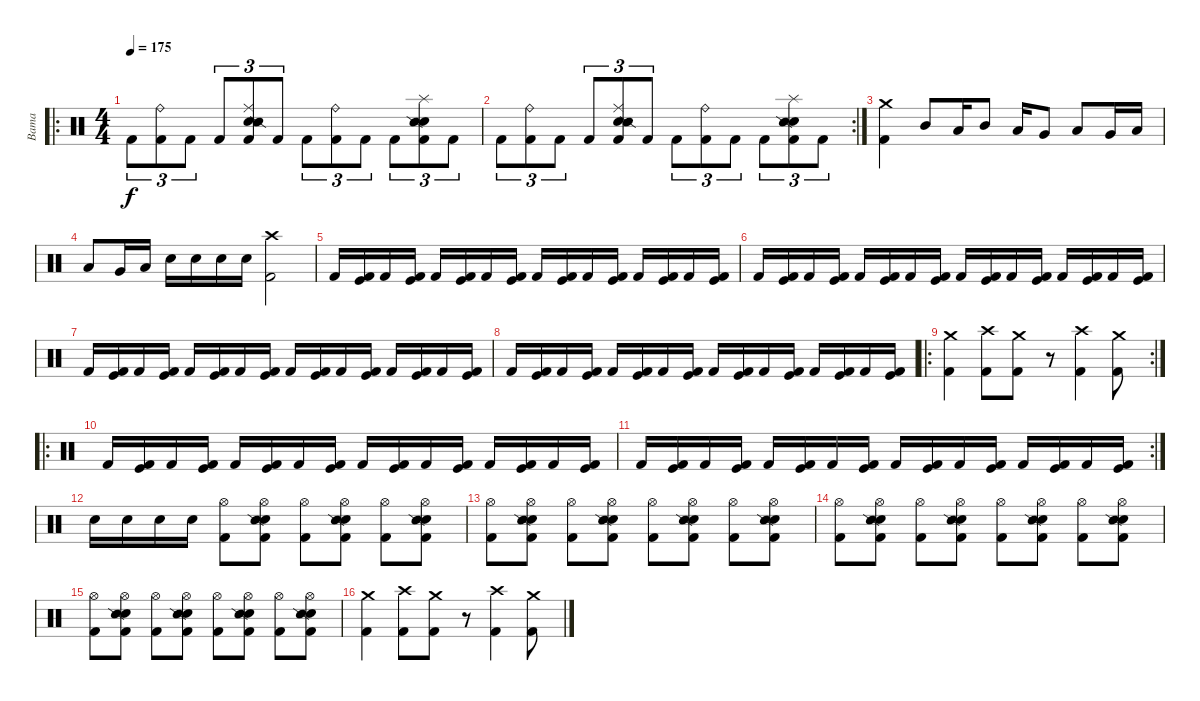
\track ("Bama" "Bama") {instrument percussion}
\staff {score}
\articulation defaults
\ro
\ts (4 4)
\tempo 175
\clef neutral
\ks c "Kick (hit) 2".8{tu (3 2) dy f}
("Ride (bell)" "Kick (hit) 2").8{tu (3 2)} "Kick (hit) 2".8{tu (3 2)} "Kick (hit) 2".8{tu (3 2)} ("Ride (middle)" "Electric Snare (hit)" "Snare (side stick) 2" "Kick (hit) 2").8{tu (3 2)} "Kick (hit) 2".8{tu (3 2)} "Kick (hit) 2".8{tu (3 2)} ("Ride (bell)" "Kick (hit) 2").8{tu (3 2)} "Kick (hit) 2".8{tu (3 2)} "Kick (hit) 2".8{tu (3 2)} ("Splash (hit)" "Electric Snare (hit)" "Snare (side stick) 2" "Kick (hit) 2").8{tu (3 2)} "Kick (hit) 2".8{tu (3 2)} |
\rc 2 "Kick (hit) 2".8{tu (3 2)}
("Ride (bell)" "Kick (hit) 2").8{tu (3 2)} "Kick (hit) 2".8{tu (3 2)} "Kick (hit) 2".8{tu (3 2)} ("Ride (middle)" "Electric Snare (hit)" "Snare (side stick) 2" "Kick (hit) 2").8{tu (3 2)} "Kick (hit) 2".8{tu (3 2)} "Kick (hit) 2".8{tu (3 2)} ("Ride (bell)" "Kick (hit) 2").8{tu (3 2)} "Kick (hit) 2".8{tu (3 2)} "Kick (hit) 2".8{tu (3 2)} ("Splash (hit)" "Electric Snare (hit)" "Snare (side stick) 2" "Kick (hit) 2").8{tu (3 2)} "Kick (hit) 2".8{tu (3 2)} |
("Crash medium (hit)" "Kick (hit) 2").4 "Mid Tom (hit)".8 "Low Tom (hit)".16 "Mid Tom (hit)".8 "Low Tom (hit)".16 "Very Low Tom (hit)".8 "Low Tom (hit)".8 "Very Low Tom (hit)".16 "Low Floor Tom (hit)".16 |
"Low Tom (hit)".8 "Very Low Tom (hit)".16 "Low Floor Tom (hit)".16 "Electric Snare (hit)".16 "Electric Snare (hit)".16 "Electric Snare (hit)".16 "Electric Snare (hit)".16 ("Crash high (hit)" "Kick (hit) 2").2 |
"Kick (hit) 2".16 ("Kick (hit)" "Kick (hit) 2").16 "Kick (hit) 2".16 ("Kick (hit)" "Kick (hit) 2").16 "Kick (hit) 2".16 ("Kick (hit)" "Kick (hit) 2").16 "Kick (hit) 2".16 ("Kick (hit)" "Kick (hit) 2").16 "Kick (hit) 2".16 ("Kick (hit)" "Kick (hit) 2").16 "Kick (hit) 2".16 ("Kick (hit)" "Kick (hit) 2").16 "Kick (hit) 2".16 ("Kick (hit)" "Kick (hit) 2").16 "Kick (hit) 2".16 ("Kick (hit)" "Kick (hit) 2").16 |
"Kick (hit) 2".16 ("Kick (hit)" "Kick (hit) 2").16 "Kick (hit) 2".16 ("Kick (hit)" "Kick (hit) 2").16 "Kick (hit) 2".16 ("Kick (hit)" "Kick (hit) 2").16 "Kick (hit) 2".16 ("Kick (hit)" "Kick (hit) 2").16 "Kick (hit) 2".16 ("Kick (hit)" "Kick (hit) 2").16 "Kick (hit) 2".16 ("Kick (hit)" "Kick (hit) 2").16 "Kick (hit) 2".16 ("Kick (hit)" "Kick (hit) 2").16 "Kick (hit) 2".16 ("Kick (hit)" "Kick (hit) 2").16 |
"Kick (hit) 2".16 ("Kick (hit)" "Kick (hit) 2").16 "Kick (hit) 2".16 ("Kick (hit)" "Kick (hit) 2").16 "Kick (hit) 2".16 ("Kick (hit)" "Kick (hit) 2").16 "Kick (hit) 2".16 ("Kick (hit)" "Kick (hit) 2").16 "Kick (hit) 2".16 ("Kick (hit)" "Kick (hit) 2").16 "Kick (hit) 2".16 ("Kick (hit)" "Kick (hit) 2").16 "Kick (hit) 2".16 ("Kick (hit)" "Kick (hit) 2").16 "Kick (hit) 2".16 ("Kick (hit)" "Kick (hit) 2").16 |
"Kick (hit) 2".16 ("Kick (hit)" "Kick (hit) 2").16 "Kick (hit) 2".16 ("Kick (hit)" "Kick (hit) 2").16 "Kick (hit) 2".16 ("Kick (hit)" "Kick (hit) 2").16 "Kick (hit) 2".16 ("Kick (hit)" "Kick (hit) 2").16 "Kick (hit) 2".16 ("Kick (hit)" "Kick (hit) 2").16 "Kick (hit) 2".16 ("Kick (hit)" "Kick (hit) 2").16 "Kick (hit) 2".16 ("Kick (hit)" "Kick (hit) 2").16 "Kick (hit) 2".16 ("Kick (hit)" "Kick (hit) 2").16 |
\ro
\rc 2
("Crash medium (hit)" "Kick (hit) 2").4 ("Crash high (hit)" "Kick (hit) 2").8 ("Crash medium (hit)" "Kick (hit) 2").8 r.8 ("Crash high (hit)" "Kick (hit) 2").4 ("Crash medium (hit)" "Kick (hit) 2").8 |
\ro "Kick (hit) 2".16
("Kick (hit)" "Kick (hit) 2").16 "Kick (hit) 2".16 ("Kick (hit)" "Kick (hit) 2").16 "Kick (hit) 2".16 ("Kick (hit)" "Kick (hit) 2").16 "Kick (hit) 2".16 ("Kick (hit)" "Kick (hit) 2").16 "Kick (hit) 2".16 ("Kick (hit)" "Kick (hit) 2").16 "Kick (hit) 2".16 ("Kick (hit)" "Kick (hit) 2").16 "Kick (hit) 2".16 ("Kick (hit)" "Kick (hit) 2").16 "Kick (hit) 2".16 ("Kick (hit)" "Kick (hit) 2").16 |
\rc 2 "Kick (hit) 2".16
("Kick (hit)" "Kick (hit) 2").16 "Kick (hit) 2".16 ("Kick (hit)" "Kick (hit) 2").16 "Kick (hit) 2".16 ("Kick (hit)" "Kick (hit) 2").16 "Kick (hit) 2".16 ("Kick (hit)" "Kick (hit) 2").16 "Kick (hit) 2".16 ("Kick (hit)" "Kick (hit) 2").16 "Kick (hit) 2".16 ("Kick (hit)" "Kick (hit) 2").16 "Kick (hit) 2".16 ("Kick (hit)" "Kick (hit) 2").16 "Kick (hit) 2".16 ("Kick (hit)" "Kick (hit) 2").16 |
"Electric Snare (hit)".16 "Electric Snare (hit)".16 "Electric Snare (hit)".16 "Electric Snare (hit)".16 ("Hi-Hat (open)" "Kick (hit) 2").8 ("Hi-Hat (open)" "Electric Snare (hit)" "Snare (side stick) 2" "Kick (hit) 2").8 ("Hi-Hat (open)" "Kick (hit) 2").8 ("Hi-Hat (open)" "Electric Snare (hit)" "Snare (side stick) 2" "Kick (hit) 2").8 ("Hi-Hat (open)" "Kick (hit) 2").8 ("Hi-Hat (open)" "Electric Snare (hit)" "Snare (side stick) 2" "Kick (hit) 2").8 |
("Hi-Hat (open)" "Kick (hit) 2").8 ("Hi-Hat (open)" "Electric Snare (hit)" "Snare (side stick) 2" "Kick (hit) 2").8 ("Hi-Hat (open)" "Kick (hit) 2").8 ("Hi-Hat (open)" "Electric Snare (hit)" "Snare (side stick) 2" "Kick (hit) 2").8 ("Hi-Hat (open)" "Kick (hit) 2").8 ("Hi-Hat (open)" "Electric Snare (hit)" "Snare (side stick) 2" "Kick (hit) 2").8 ("Hi-Hat (open)" "Kick (hit) 2").8 ("Hi-Hat (open)" "Electric Snare (hit)" "Snare (side stick) 2" "Kick (hit) 2").8 |
("Hi-Hat (open)" "Kick (hit) 2").8 ("Hi-Hat (open)" "Electric Snare (hit)" "Snare (side stick) 2" "Kick (hit) 2").8 ("Hi-Hat (open)" "Kick (hit) 2").8 ("Hi-Hat (open)" "Electric Snare (hit)" "Snare (side stick) 2" "Kick (hit) 2").8 ("Hi-Hat (open)" "Kick (hit) 2").8 ("Hi-Hat (open)" "Electric Snare (hit)" "Snare (side stick) 2" "Kick (hit) 2").8 ("Hi-Hat (open)" "Kick (hit) 2").8 ("Hi-Hat (open)" "Electric Snare (hit)" "Snare (side stick) 2" "Kick (hit) 2").8 |
("Hi-Hat (open)" "Kick (hit) 2").8 ("Hi-Hat (open)" "Electric Snare (hit)" "Snare (side stick) 2" "Kick (hit) 2").8 ("Hi-Hat (open)" "Kick (hit) 2").8 ("Hi-Hat (open)" "Electric Snare (hit)" "Snare (side stick) 2" "Kick (hit) 2").8 ("Hi-Hat (open)" "Kick (hit) 2").8 ("Hi-Hat (open)" "Electric Snare (hit)" "Snare (side stick) 2" "Kick (hit) 2").8 ("Hi-Hat (open)" "Kick (hit) 2").8 ("Hi-Hat (open)" "Electric Snare (hit)" "Snare (side stick) 2" "Kick (hit) 2").8 |
("Crash medium (hit)" "Kick (hit) 2").4 ("Crash high (hit)" "Kick (hit) 2").8 ("Crash medium (hit)" "Kick (hit) 2").8 r.8 ("Crash high (hit)" "Kick (hit) 2").4 ("Crash medium (hit)" "Kick (hit) 2").8
